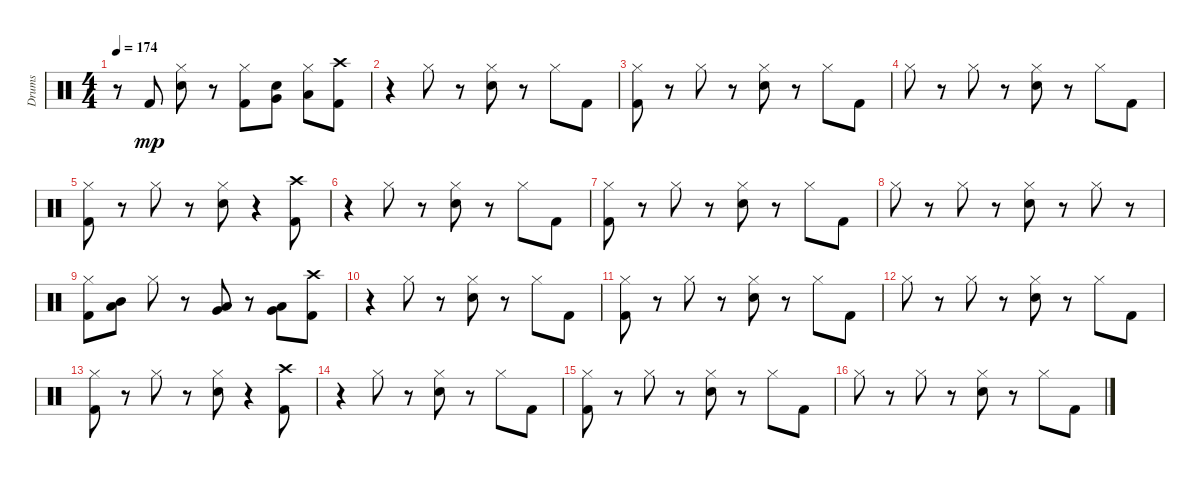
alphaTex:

\track ("Drums" "Drums") {instrument percussion}
\staff {score}
\articulation defaults
\ts (4 4)
\tempo 174
\clef neutral
\ks c
r.8{dy mp} "Kick (hit) 2".8 ("Hi-Hat (closed)" "Snare (hit) 2").8 r.8 ("Hi-Hat (closed)" "Kick (hit) 2").8 ("Snare (hit) 2" "Very Low Tom (hit)").8 ("Low Floor Tom (hit)" "Hi-Hat (closed)").8 ("Kick (hit) 2" "Crash high (hit)").8 |
r.4 "Hi-Hat (closed)".8 r.8 ("Snare (hit) 2" "Hi-Hat (closed)").8 r.8 "Hi-Hat (closed)".8 "Kick (hit) 2".8 |
("Kick (hit) 2" "Hi-Hat (closed)").8 r.8 "Hi-Hat (closed)".8 r.8 ("Snare (hit) 2" "Hi-Hat (closed)").8 r.8 "Hi-Hat (closed)".8 "Kick (hit) 2".8 |
"Hi-Hat (closed)".8 r.8 "Hi-Hat (closed)".8 r.8 ("Snare (hit) 2" "Hi-Hat (closed)").8 r.8 "Hi-Hat (closed)".8 "Kick (hit) 2".8 |
("Hi-Hat (closed)" "Kick (hit) 2").8 r.8 "Hi-Hat (closed)".8 r.8 ("Snare (hit) 2" "Hi-Hat (closed)").8 r.4 ("Crash high (hit)" "Kick (hit) 2").8 |
r.4 "Hi-Hat (closed)".8 r.8 ("Hi-Hat (closed)" "Snare (hit) 2").8 r.8 "Hi-Hat (closed)".8 "Kick (hit) 2".8 |
("Hi-Hat (closed)" "Kick (hit) 2").8 r.8 "Hi-Hat (closed)".8 r.8 ("Snare (hit) 2" "Hi-Hat (closed)").8 r.8 "Hi-Hat (closed)".8 "Kick (hit) 2".8 |
"Hi-Hat (closed)".8 r.8 "Hi-Hat (closed)".8 r.8 ("Hi-Hat (closed)" "Snare (hit) 2").8 r.8 "Hi-Hat (closed)".8 r.8 |
("Hi-Hat (closed)" "Kick (hit) 2").8 ("Low Tom (hit)" "Mid Tom (hit)").8 "Hi-Hat (closed)".8 r.8 ("Very Low Tom (hit)" "Low Tom (hit)").8 r.8 ("Very Low Tom (hit)" "Low Floor Tom (hit)").8 ("Crash high (hit)" "Kick (hit) 2").8 |
r.4 "Hi-Hat (closed)".8 r.8 ("Snare (hit) 2" "Hi-Hat (closed)").8 r.8 "Hi-Hat (closed)".8 "Kick (hit) 2".8 |
("Kick (hit) 2" "Hi-Hat (closed)").8 r.8 "Hi-Hat (closed)".8 r.8 ("Hi-Hat (closed)" "Snare (hit) 2").8 r.8 "Hi-Hat (closed)".8 "Kick (hit) 2".8 |
"Hi-Hat (closed)".8 r.8 "Hi-Hat (closed)".8 r.8 ("Snare (hit) 2" "Hi-Hat (closed)").8 r.8 "Hi-Hat (closed)".8 "Kick (hit) 2".8 |
("Kick (hit) 2" "Hi-Hat (closed)").8 r.8 "Hi-Hat (closed)".8 r.8 ("Hi-Hat (closed)" "Snare (hit) 2").8 r.4 ("Kick (hit) 2" "Crash high (hit)").8 |
r.4 "Hi-Hat (closed)".8 r.8 ("Snare (hit) 2" "Hi-Hat (closed)").8 r.8 "Hi-Hat (closed)".8 "Kick (hit) 2".8 |
("Hi-Hat (closed)" "Kick (hit) 2").8 r.8 "Hi-Hat (closed)".8 r.8 ("Snare (hit) 2" "Hi-Hat (closed)").8 r.8 "Hi-Hat (closed)".8 "Kick (hit) 2".8 |
"Hi-Hat (closed)".8 r.8 "Hi-Hat (closed)".8 r.8 ("Snare (hit) 2" "Hi-Hat (closed)").8 r.8 "Hi-Hat (closed)".8 "Kick (hit) 2".8
